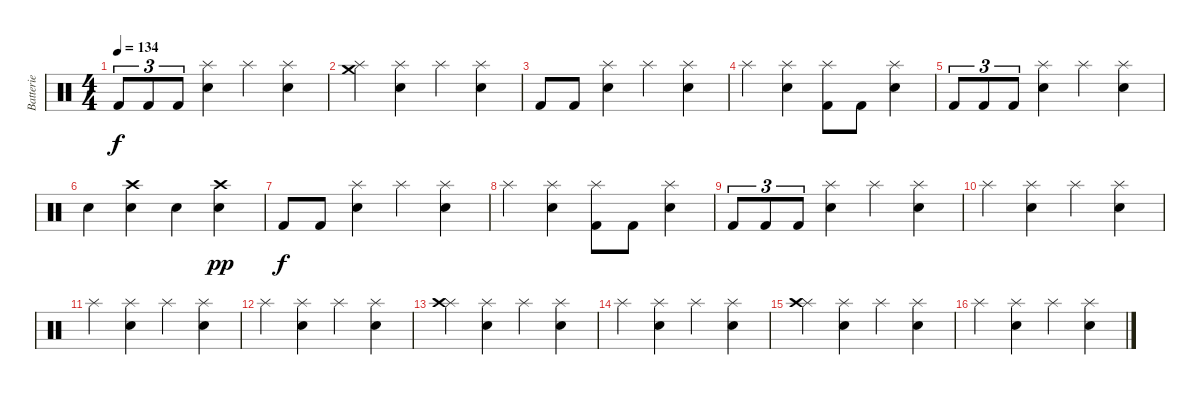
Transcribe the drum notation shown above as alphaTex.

\track ("Batterie" "Batterie") {instrument percussion}
\staff {score}
\articulation defaults
\ts (4 4)
\tempo 134
\clef neutral
\ks c "Kick (hit) 2".8{tu (3 2) dy f} "Kick (hit) 2".8{tu (3 2)} "Kick (hit) 2".8{tu (3 2)}
("Splash (hit)" "Electric Snare (hit)").4 "Splash (hit)".4 ("Splash (hit)" "Electric Snare (hit)").4 |
("Splash (hit)" "Crash medium (hit)").4 ("Splash (hit)" "Electric Snare (hit)").4 "Splash (hit)".4 ("Splash (hit)" "Electric Snare (hit)").4 |
"Kick (hit) 2".8 "Kick (hit) 2".8 ("Splash (hit)" "Electric Snare (hit)").4 "Splash (hit)".4 ("Splash (hit)" "Electric Snare (hit)").4 |
"Splash (hit)".4 ("Splash (hit)" "Electric Snare (hit)").4 ("Splash (hit)" "Kick (hit) 2").8 "Kick (hit) 2".8 ("Splash (hit)" "Electric Snare (hit)").4 |
"Kick (hit) 2".8{tu (3 2)} "Kick (hit) 2".8{tu (3 2)} "Kick (hit) 2".8{tu (3 2)} ("Splash (hit)" "Electric Snare (hit)").4 "Splash (hit)".4 ("Splash (hit)" "Electric Snare (hit)").4 |
"Snare (hit) 2".4 ("Snare (hit) 2" "Crash high (hit)").4 "Snare (hit) 2".4 ("Snare (hit) 2" "Crash high (hit)").4{dy pp} |
"Kick (hit) 2".8{dy f} "Kick (hit) 2".8 ("Splash (hit)" "Electric Snare (hit)").4 "Splash (hit)".4 ("Splash (hit)" "Electric Snare (hit)").4 |
"Splash (hit)".4 ("Splash (hit)" "Electric Snare (hit)").4 ("Splash (hit)" "Kick (hit) 2").8 "Kick (hit) 2".8 ("Splash (hit)" "Electric Snare (hit)").4 |
"Kick (hit) 2".8{tu (3 2)} "Kick (hit) 2".8{tu (3 2)} "Kick (hit) 2".8{tu (3 2)} ("Splash (hit)" "Electric Snare (hit)").4 "Splash (hit)".4 ("Splash (hit)" "Electric Snare (hit)").4 |
"Splash (hit)".4 ("Splash (hit)" "Electric Snare (hit)").4 "Splash (hit)".4 ("Splash (hit)" "Electric Snare (hit)").4 |
"Splash (hit)".4 ("Splash (hit)" "Electric Snare (hit)").4 "Splash (hit)".4 ("Splash (hit)" "Electric Snare (hit)").4 |
"Splash (hit)".4 ("Splash (hit)" "Electric Snare (hit)").4 "Splash (hit)".4 ("Splash (hit)" "Electric Snare (hit)").4 |
("Splash (hit)" "Crash high (hit)").4 ("Splash (hit)" "Electric Snare (hit)").4 "Splash (hit)".4 ("Splash (hit)" "Electric Snare (hit)").4 |
"Splash (hit)".4 ("Splash (hit)" "Electric Snare (hit)").4 "Splash (hit)".4 ("Splash (hit)" "Electric Snare (hit)").4 |
("Splash (hit)" "Crash high (hit)").4 ("Splash (hit)" "Electric Snare (hit)").4 "Splash (hit)".4 ("Splash (hit)" "Electric Snare (hit)").4 |
"Splash (hit)".4 ("Splash (hit)" "Electric Snare (hit)").4 "Splash (hit)".4 ("Splash (hit)" "Electric Snare (hit)").4
